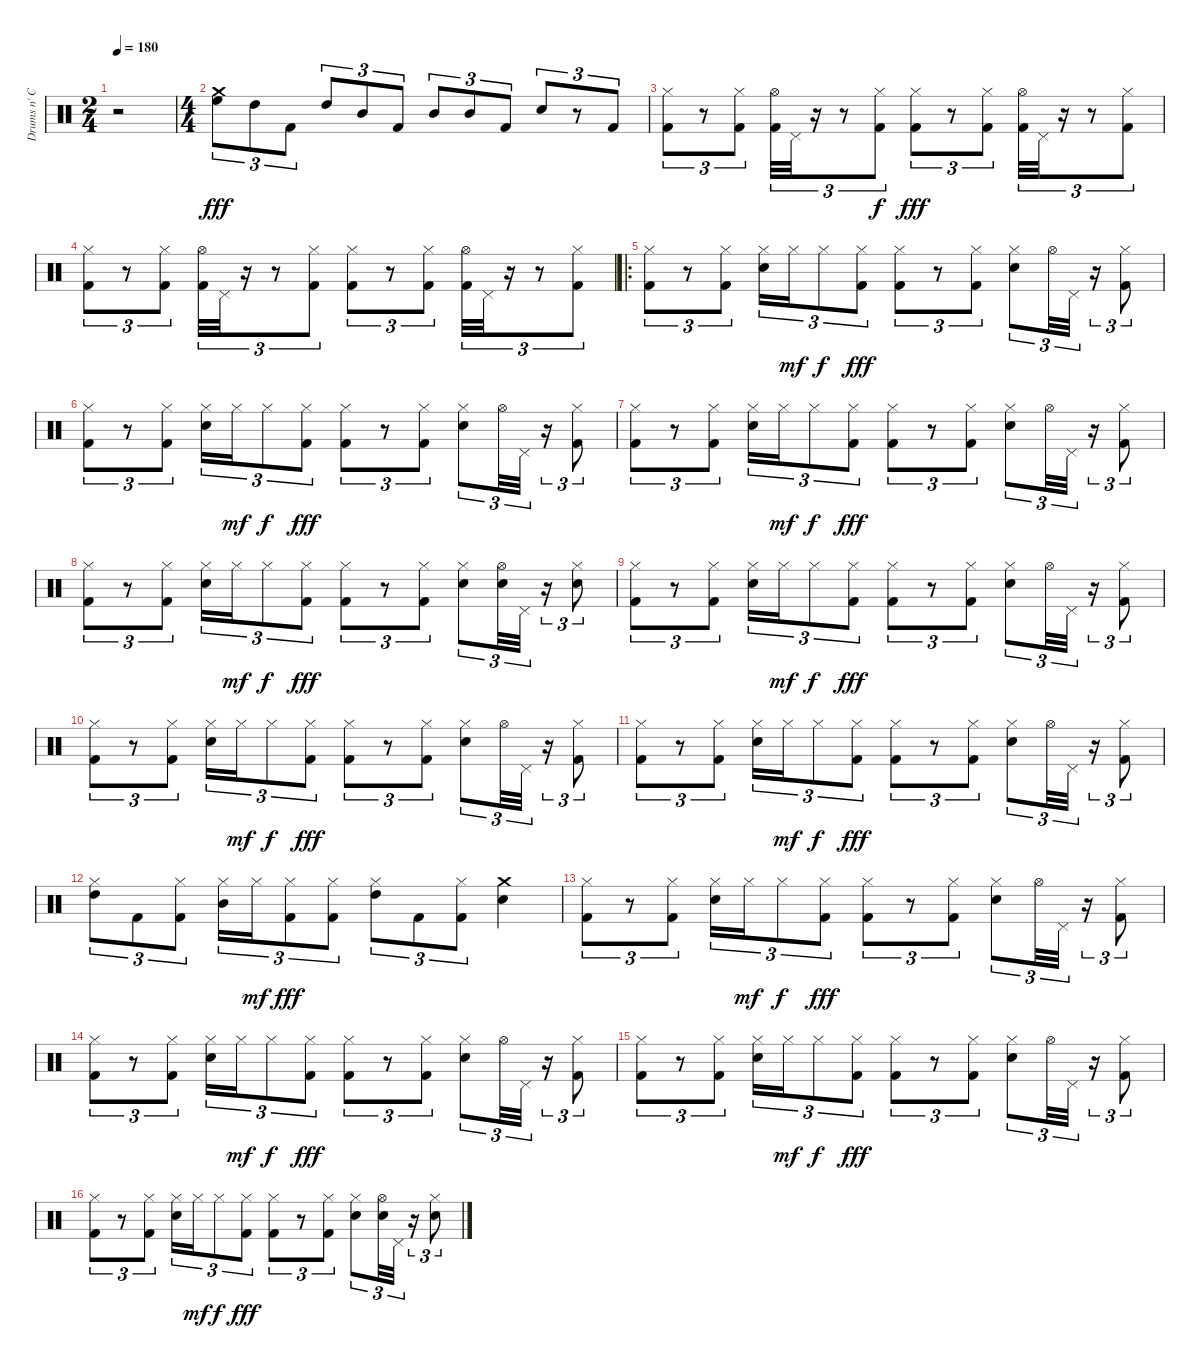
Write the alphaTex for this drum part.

\track ("Drums n' Cymbals" "Drums n' C") {instrument percussion}
\staff {score}
\articulation defaults
\ts (2 4)
\tempo 180
\clef neutral
\ks c
r.2{dy fff} |
\ts (4 4)
("High Floor Tom (hit)" "Crash medium (hit)").8{tu (3 2)} "High Tom (hit)".8{tu (3 2)} "Kick (hit) 2".8{tu (3 2)} "High Tom (hit)".8{tu (3 2)} "Mid Tom (hit)".8{tu (3 2)} "Kick (hit) 2".8{tu (3 2)} "Mid Tom (hit)".8{tu (3 2)} "Mid Tom (hit)".8{tu (3 2)} "Kick (hit) 2".8{tu (3 2)} "Electric Snare (hit)".8{tu (3 2)} r.8{tu (3 2)} "Kick (hit) 2".8{tu (3 2)} |
("Hi-Hat (closed)" "Kick (hit) 2").8{tu (3 2)} r.8{tu (3 2)} ("Hi-Hat (closed)" "Kick (hit) 2").8{tu (3 2)} ("Hi-Hat (open)" "Kick (hit) 2").32{tu (3 2)} "Pedal Hi-Hat (hit)".32{tu (3 2)} r.16{tu (3 2)} r.8{tu (3 2)} ("Hi-Hat (closed)" "Kick (hit) 2").8{tu (3 2) dy f} ("Hi-Hat (closed)" "Kick (hit) 2").8{tu (3 2) dy fff} r.8{tu (3 2)} ("Hi-Hat (closed)" "Kick (hit) 2").8{tu (3 2)} ("Hi-Hat (open)" "Kick (hit) 2").32{tu (3 2)} "Pedal Hi-Hat (hit)".32{tu (3 2)} r.16{tu (3 2)} r.8{tu (3 2)} ("Hi-Hat (closed)" "Kick (hit) 2").8{tu (3 2)} |
("Hi-Hat (closed)" "Kick (hit) 2").8{tu (3 2)} r.8{tu (3 2)} ("Hi-Hat (closed)" "Kick (hit) 2").8{tu (3 2)} ("Hi-Hat (open)" "Kick (hit) 2").32{tu (3 2)} "Pedal Hi-Hat (hit)".32{tu (3 2)} r.16{tu (3 2)} r.8{tu (3 2)} ("Hi-Hat (closed)" "Kick (hit) 2").8{tu (3 2)} ("Hi-Hat (closed)" "Kick (hit) 2").8{tu (3 2)} r.8{tu (3 2)} ("Hi-Hat (closed)" "Kick (hit) 2").8{tu (3 2)} ("Hi-Hat (open)" "Kick (hit) 2").32{tu (3 2)} "Pedal Hi-Hat (hit)".32{tu (3 2)} r.16{tu (3 2)} r.8{tu (3 2)} ("Hi-Hat (closed)" "Kick (hit) 2").8{tu (3 2)} |
\ro
("Hi-Hat (closed)" "Kick (hit) 2").8{tu (3 2)} r.8{tu (3 2)} ("Hi-Hat (closed)" "Kick (hit) 2").8{tu (3 2)} ("Hi-Hat (closed)" "Electric Snare (hit)").16{tu (3 2)} "Hi-Hat (closed)".16{tu (3 2) dy mf} "Hi-Hat (closed)".8{tu (3 2) dy f} ("Hi-Hat (closed)" "Kick (hit) 2").8{tu (3 2) dy fff} ("Hi-Hat (closed)" "Kick (hit) 2").8{tu (3 2)} r.8{tu (3 2)} ("Hi-Hat (closed)" "Kick (hit) 2").8{tu (3 2)} ("Hi-Hat (closed)" "Electric Snare (hit)").8{tu (3 2)} "Hi-Hat (open)".32{tu (3 2)} "Pedal Hi-Hat (hit)".32{tu (3 2)} r.16{tu (3 2)} ("Hi-Hat (closed)" "Kick (hit) 2").8{tu (3 2)} |
("Hi-Hat (closed)" "Kick (hit) 2").8{tu (3 2)} r.8{tu (3 2)} ("Hi-Hat (closed)" "Kick (hit) 2").8{tu (3 2)} ("Hi-Hat (closed)" "Electric Snare (hit)").16{tu (3 2)} "Hi-Hat (closed)".16{tu (3 2) dy mf} "Hi-Hat (closed)".8{tu (3 2) dy f} ("Hi-Hat (closed)" "Kick (hit) 2").8{tu (3 2) dy fff} ("Hi-Hat (closed)" "Kick (hit) 2").8{tu (3 2)} r.8{tu (3 2)} ("Hi-Hat (closed)" "Kick (hit) 2").8{tu (3 2)} ("Hi-Hat (closed)" "Electric Snare (hit)").8{tu (3 2)} "Hi-Hat (open)".32{tu (3 2)} "Pedal Hi-Hat (hit)".32{tu (3 2)} r.16{tu (3 2)} ("Hi-Hat (closed)" "Kick (hit) 2").8{tu (3 2)} |
("Hi-Hat (closed)" "Kick (hit) 2").8{tu (3 2)} r.8{tu (3 2)} ("Hi-Hat (closed)" "Kick (hit) 2").8{tu (3 2)} ("Hi-Hat (closed)" "Electric Snare (hit)").16{tu (3 2)} "Hi-Hat (closed)".16{tu (3 2) dy mf} "Hi-Hat (closed)".8{tu (3 2) dy f} ("Hi-Hat (closed)" "Kick (hit) 2").8{tu (3 2) dy fff} ("Hi-Hat (closed)" "Kick (hit) 2").8{tu (3 2)} r.8{tu (3 2)} ("Hi-Hat (closed)" "Kick (hit) 2").8{tu (3 2)} ("Hi-Hat (closed)" "Electric Snare (hit)").8{tu (3 2)} "Hi-Hat (open)".32{tu (3 2)} "Pedal Hi-Hat (hit)".32{tu (3 2)} r.16{tu (3 2)} ("Hi-Hat (closed)" "Kick (hit) 2").8{tu (3 2)} |
("Hi-Hat (closed)" "Kick (hit) 2").8{tu (3 2)} r.8{tu (3 2)} ("Hi-Hat (closed)" "Kick (hit) 2").8{tu (3 2)} ("Hi-Hat (closed)" "Electric Snare (hit)").16{tu (3 2)} "Hi-Hat (closed)".16{tu (3 2) dy mf} "Hi-Hat (closed)".8{tu (3 2) dy f} ("Hi-Hat (closed)" "Kick (hit) 2").8{tu (3 2) dy fff} ("Hi-Hat (closed)" "Kick (hit) 2").8{tu (3 2)} r.8{tu (3 2)} ("Hi-Hat (closed)" "Kick (hit) 2").8{tu (3 2)} ("Hi-Hat (closed)" "Electric Snare (hit)").8{tu (3 2)} ("Hi-Hat (open)" "Electric Snare (hit)").32{tu (3 2)} "Pedal Hi-Hat (hit)".32{tu (3 2)} r.16{tu (3 2)} ("Hi-Hat (closed)" "Electric Snare (hit)").8{tu (3 2)} |
("Hi-Hat (closed)" "Kick (hit) 2").8{tu (3 2)} r.8{tu (3 2)} ("Hi-Hat (closed)" "Kick (hit) 2").8{tu (3 2)} ("Hi-Hat (closed)" "Electric Snare (hit)").16{tu (3 2)} "Hi-Hat (closed)".16{tu (3 2) dy mf} "Hi-Hat (closed)".8{tu (3 2) dy f} ("Hi-Hat (closed)" "Kick (hit) 2").8{tu (3 2) dy fff} ("Hi-Hat (closed)" "Kick (hit) 2").8{tu (3 2)} r.8{tu (3 2)} ("Hi-Hat (closed)" "Kick (hit) 2").8{tu (3 2)} ("Hi-Hat (closed)" "Electric Snare (hit)").8{tu (3 2)} "Hi-Hat (open)".32{tu (3 2)} "Pedal Hi-Hat (hit)".32{tu (3 2)} r.16{tu (3 2)} ("Hi-Hat (closed)" "Kick (hit) 2").8{tu (3 2)} |
("Hi-Hat (closed)" "Kick (hit) 2").8{tu (3 2)} r.8{tu (3 2)} ("Hi-Hat (closed)" "Kick (hit) 2").8{tu (3 2)} ("Hi-Hat (closed)" "Electric Snare (hit)").16{tu (3 2)} "Hi-Hat (closed)".16{tu (3 2) dy mf} "Hi-Hat (closed)".8{tu (3 2) dy f} ("Hi-Hat (closed)" "Kick (hit) 2").8{tu (3 2) dy fff} ("Hi-Hat (closed)" "Kick (hit) 2").8{tu (3 2)} r.8{tu (3 2)} ("Hi-Hat (closed)" "Kick (hit) 2").8{tu (3 2)} ("Hi-Hat (closed)" "Electric Snare (hit)").8{tu (3 2)} "Hi-Hat (open)".32{tu (3 2)} "Pedal Hi-Hat (hit)".32{tu (3 2)} r.16{tu (3 2)} ("Hi-Hat (closed)" "Kick (hit) 2").8{tu (3 2)} |
("Hi-Hat (closed)" "Kick (hit) 2").8{tu (3 2)} r.8{tu (3 2)} ("Hi-Hat (closed)" "Kick (hit) 2").8{tu (3 2)} ("Hi-Hat (closed)" "Electric Snare (hit)").16{tu (3 2)} "Hi-Hat (closed)".16{tu (3 2) dy mf} "Hi-Hat (closed)".8{tu (3 2) dy f} ("Hi-Hat (closed)" "Kick (hit) 2").8{tu (3 2) dy fff} ("Hi-Hat (closed)" "Kick (hit) 2").8{tu (3 2)} r.8{tu (3 2)} ("Hi-Hat (closed)" "Kick (hit) 2").8{tu (3 2)} ("Hi-Hat (closed)" "Electric Snare (hit)").8{tu (3 2)} "Hi-Hat (open)".32{tu (3 2)} "Pedal Hi-Hat (hit)".32{tu (3 2)} r.16{tu (3 2)} ("Hi-Hat (closed)" "Kick (hit) 2").8{tu (3 2)} |
("Hi-Hat (closed)" "High Tom (hit)").8{tu (3 2)} "Kick (hit) 2".8{tu (3 2)} ("Hi-Hat (closed)" "Kick (hit) 2").8{tu (3 2)} ("Hi-Hat (closed)" "Mid Tom (hit)").16{tu (3 2)} "Hi-Hat (closed)".16{tu (3 2) dy mf} ("Hi-Hat (closed)" "Kick (hit) 2").8{tu (3 2) dy fff} ("Hi-Hat (closed)" "Kick (hit) 2").8{tu (3 2)} ("Hi-Hat (closed)" "High Tom (hit)").8{tu (3 2)} "Kick (hit) 2".8{tu (3 2)} ("Hi-Hat (closed)" "Kick (hit) 2").8{tu (3 2)} ("Electric Snare (hit)" "Crash medium (hit)").4 |
("Hi-Hat (closed)" "Kick (hit) 2").8{tu (3 2)} r.8{tu (3 2)} ("Hi-Hat (closed)" "Kick (hit) 2").8{tu (3 2)} ("Hi-Hat (closed)" "Electric Snare (hit)").16{tu (3 2)} "Hi-Hat (closed)".16{tu (3 2) dy mf} "Hi-Hat (closed)".8{tu (3 2) dy f} ("Hi-Hat (closed)" "Kick (hit) 2").8{tu (3 2) dy fff} ("Hi-Hat (closed)" "Kick (hit) 2").8{tu (3 2)} r.8{tu (3 2)} ("Hi-Hat (closed)" "Kick (hit) 2").8{tu (3 2)} ("Hi-Hat (closed)" "Electric Snare (hit)").8{tu (3 2)} "Hi-Hat (open)".32{tu (3 2)} "Pedal Hi-Hat (hit)".32{tu (3 2)} r.16{tu (3 2)} ("Hi-Hat (closed)" "Kick (hit) 2").8{tu (3 2)} |
("Hi-Hat (closed)" "Kick (hit) 2").8{tu (3 2)} r.8{tu (3 2)} ("Hi-Hat (closed)" "Kick (hit) 2").8{tu (3 2)} ("Hi-Hat (closed)" "Electric Snare (hit)").16{tu (3 2)} "Hi-Hat (closed)".16{tu (3 2) dy mf} "Hi-Hat (closed)".8{tu (3 2) dy f} ("Hi-Hat (closed)" "Kick (hit) 2").8{tu (3 2) dy fff} ("Hi-Hat (closed)" "Kick (hit) 2").8{tu (3 2)} r.8{tu (3 2)} ("Hi-Hat (closed)" "Kick (hit) 2").8{tu (3 2)} ("Hi-Hat (closed)" "Electric Snare (hit)").8{tu (3 2)} "Hi-Hat (open)".32{tu (3 2)} "Pedal Hi-Hat (hit)".32{tu (3 2)} r.16{tu (3 2)} ("Hi-Hat (closed)" "Kick (hit) 2").8{tu (3 2)} |
("Hi-Hat (closed)" "Kick (hit) 2").8{tu (3 2)} r.8{tu (3 2)} ("Hi-Hat (closed)" "Kick (hit) 2").8{tu (3 2)} ("Hi-Hat (closed)" "Electric Snare (hit)").16{tu (3 2)} "Hi-Hat (closed)".16{tu (3 2) dy mf} "Hi-Hat (closed)".8{tu (3 2) dy f} ("Hi-Hat (closed)" "Kick (hit) 2").8{tu (3 2) dy fff} ("Hi-Hat (closed)" "Kick (hit) 2").8{tu (3 2)} r.8{tu (3 2)} ("Hi-Hat (closed)" "Kick (hit) 2").8{tu (3 2)} ("Hi-Hat (closed)" "Electric Snare (hit)").8{tu (3 2)} "Hi-Hat (open)".32{tu (3 2)} "Pedal Hi-Hat (hit)".32{tu (3 2)} r.16{tu (3 2)} ("Hi-Hat (closed)" "Kick (hit) 2").8{tu (3 2)} |
("Hi-Hat (closed)" "Kick (hit) 2").8{tu (3 2)} r.8{tu (3 2)} ("Hi-Hat (closed)" "Kick (hit) 2").8{tu (3 2)} ("Hi-Hat (closed)" "Electric Snare (hit)").16{tu (3 2)} "Hi-Hat (closed)".16{tu (3 2) dy mf} "Hi-Hat (closed)".8{tu (3 2) dy f} ("Hi-Hat (closed)" "Kick (hit) 2").8{tu (3 2) dy fff} ("Hi-Hat (closed)" "Kick (hit) 2").8{tu (3 2)} r.8{tu (3 2)} ("Hi-Hat (closed)" "Kick (hit) 2").8{tu (3 2)} ("Hi-Hat (closed)" "Electric Snare (hit)").8{tu (3 2)} ("Hi-Hat (open)" "Electric Snare (hit)").32{tu (3 2)} "Pedal Hi-Hat (hit)".32{tu (3 2)} r.16{tu (3 2)} ("Hi-Hat (closed)" "Electric Snare (hit)").8{tu (3 2)}
